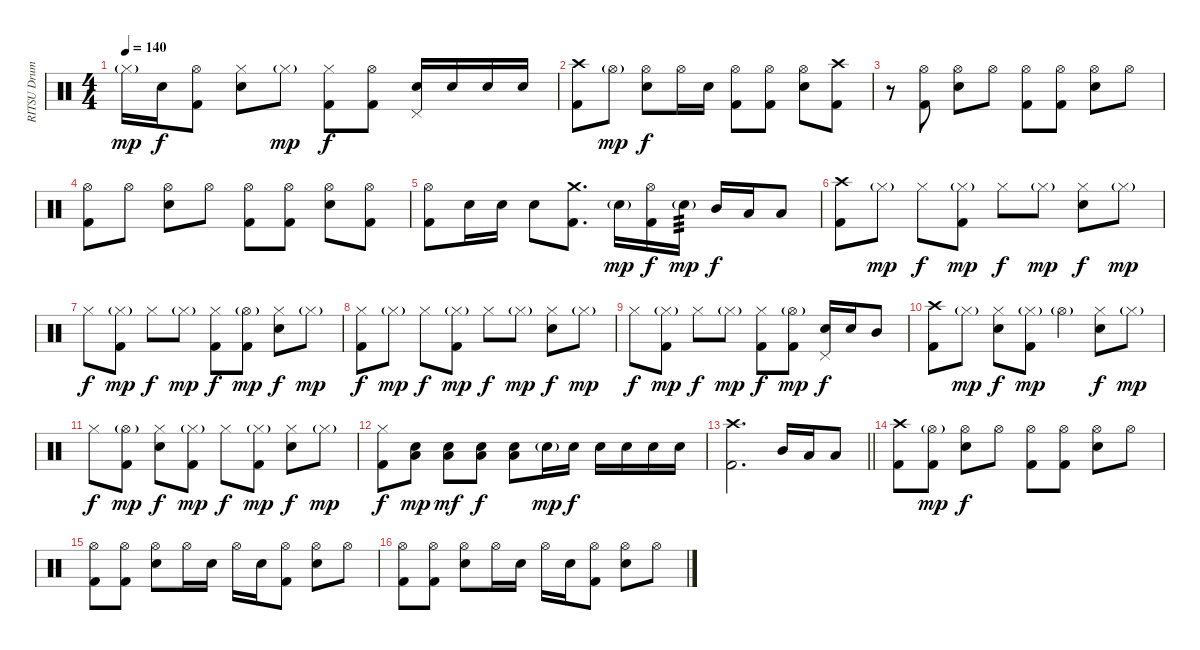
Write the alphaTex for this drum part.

\track ("RITSU Drums" "RITSU Drum") {instrument percussion}
\staff {score}
\articulation defaults
\ts (4 4)
\tempo 140
\clef neutral
\ks c "Hi-Hat (closed)"{g}.16{dy mp} "Electric Snare (hit)".16{dy f}
("Hi-Hat (open)" "Kick (hit) 2").8 ("Hi-Hat (closed)" "Electric Snare (hit)").8 "Hi-Hat (closed)"{g}.8{dy mp} ("Hi-Hat (closed)" "Kick (hit) 2").8{dy f} ("Hi-Hat (open)" "Kick (hit) 2").8 ("Pedal Hi-Hat (hit)" "Electric Snare (hit)").16 "Electric Snare (hit)".16 "Electric Snare (hit)".16 "Electric Snare (hit)".16 |
("Crash high (hit)" "Kick (hit) 2").8 "Hi-Hat (open)"{g}.8{dy mp} ("Hi-Hat (open)" "Electric Snare (hit)").8{dy f} "Hi-Hat (open)".16 "Electric Snare (hit)".16 ("Hi-Hat (open)" "Kick (hit) 2").8 ("Hi-Hat (open)" "Kick (hit) 2").8 ("Hi-Hat (open)" "Electric Snare (hit)").8 ("Crash high (hit)" "Kick (hit) 2").8 |
r.8 ("Hi-Hat (open)" "Kick (hit) 2").8 ("Hi-Hat (open)" "Electric Snare (hit)").8 "Hi-Hat (open)".8 ("Hi-Hat (open)" "Kick (hit) 2").8 ("Hi-Hat (open)" "Kick (hit) 2").8 ("Hi-Hat (open)" "Electric Snare (hit)").8 "Hi-Hat (open)".8 |
("Hi-Hat (open)" "Kick (hit) 2").8 "Hi-Hat (open)".8 ("Hi-Hat (open)" "Electric Snare (hit)").8 "Hi-Hat (open)".8 ("Hi-Hat (open)" "Kick (hit) 2").8 ("Hi-Hat (open)" "Kick (hit) 2").8 ("Hi-Hat (open)" "Electric Snare (hit)").8 ("Hi-Hat (open)" "Kick (hit) 2").8 |
("Hi-Hat (open)" "Kick (hit) 2").8 "Electric Snare (hit)".16 "Electric Snare (hit)".16 "Electric Snare (hit)".8 ("Crash medium (hit)" "Kick (hit) 2").8{d} "Electric Snare (hit)"{g}.16{dy mp} ("Hi-Hat (open)" "Kick (hit) 2").16{dy f} "Electric Snare (hit)"{g}.16{tp 3 dy mp} "Mid Tom (hit)".16{dy f} "Low Tom (hit)".16 "Low Tom (hit)".8 |
("Crash high (hit)" "Kick (hit) 2").8 "Hi-Hat (closed)"{g}.8{dy mp} "Hi-Hat (closed)".8{dy f} ("Hi-Hat (closed)"{g} "Kick (hit) 2").8{dy mp} "Hi-Hat (closed)".8{dy f} "Hi-Hat (closed)"{g}.8{dy mp} ("Hi-Hat (closed)" "Electric Snare (hit)").8{dy f} "Hi-Hat (closed)"{g}.8{dy mp} |
"Hi-Hat (closed)".8{dy f} ("Hi-Hat (closed)"{g} "Kick (hit) 2").8{dy mp} "Hi-Hat (closed)".8{dy f} "Hi-Hat (closed)"{g}.8{dy mp} ("Hi-Hat (closed)" "Kick (hit) 2").8{dy f} ("Hi-Hat (open)"{g} "Kick (hit) 2").8{dy mp} ("Hi-Hat (closed)" "Electric Snare (hit)").8{dy f} "Hi-Hat (closed)"{g}.8{dy mp} |
("Hi-Hat (closed)" "Kick (hit) 2").8{dy f} "Hi-Hat (closed)"{g}.8{dy mp} "Hi-Hat (closed)".8{dy f} ("Hi-Hat (closed)"{g} "Kick (hit) 2").8{dy mp} "Hi-Hat (closed)".8{dy f} "Hi-Hat (closed)"{g}.8{dy mp} ("Hi-Hat (closed)" "Electric Snare (hit)").8{dy f} "Hi-Hat (closed)"{g}.8{dy mp} |
"Hi-Hat (closed)".8{dy f} ("Hi-Hat (closed)"{g} "Kick (hit) 2").8{dy mp} "Hi-Hat (closed)".8{dy f} "Hi-Hat (closed)"{g}.8{dy mp} ("Hi-Hat (closed)" "Kick (hit) 2").8{dy f} ("Hi-Hat (open)"{g} "Kick (hit) 2").8{dy mp} ("Pedal Hi-Hat (hit)" "Electric Snare (hit)").16{dy f} "Electric Snare (hit)".16 "Mid Tom (hit)".8 |
("Crash high (hit)" "Kick (hit) 2").8 "Hi-Hat (closed)"{g}.8{dy mp} ("Hi-Hat (closed)" "Electric Snare (hit)").8{dy f} ("Hi-Hat (closed)"{g} "Kick (hit) 2").8{dy mp} "Hi-Hat (open)"{g}.4 ("Hi-Hat (closed)" "Electric Snare (hit)").8{dy f} "Hi-Hat (closed)"{g}.8{dy mp} |
"Hi-Hat (closed)".8{dy f} ("Hi-Hat (open)"{g} "Kick (hit) 2").8{dy mp} ("Hi-Hat (closed)" "Electric Snare (hit)").8{dy f} ("Hi-Hat (closed)"{g} "Kick (hit) 2").8{dy mp} "Hi-Hat (closed)".8{dy f} ("Hi-Hat (closed)"{g} "Kick (hit) 2").8{dy mp} ("Hi-Hat (closed)" "Electric Snare (hit)").8{dy f} "Hi-Hat (closed)"{g}.8{dy mp} |
("Hi-Hat (closed)" "Kick (hit) 2").8{dy f} ("Electric Snare (hit)" "Low Floor Tom (hit)").8{dy mp} ("Electric Snare (hit)" "Low Floor Tom (hit)").8{dy mf} ("Electric Snare (hit)" "Low Floor Tom (hit)").8{dy f} ("Electric Snare (hit)" "Low Floor Tom (hit)").8 "Electric Snare (hit)"{g}.16{dy mp} "Electric Snare (hit)".16{dy f} "Electric Snare (hit)".16 "Electric Snare (hit)".16 "Electric Snare (hit)".16 "Electric Snare (hit)".16 |
\barLineRight lightlight
("Crash high (hit)" "Kick (hit) 2").2{d} "Mid Tom (hit)".16 "Low Tom (hit)".16 "Low Floor Tom (hit)".8 |
("Crash high (hit)" "Kick (hit) 2").8 ("Hi-Hat (open)"{g} "Kick (hit) 2").8{dy mp} ("Hi-Hat (open)" "Electric Snare (hit)").8{dy f} "Hi-Hat (open)".8 ("Hi-Hat (open)" "Kick (hit) 2").8 ("Hi-Hat (open)" "Kick (hit) 2").8 ("Hi-Hat (open)" "Electric Snare (hit)").8 "Hi-Hat (open)".8 |
("Hi-Hat (open)" "Kick (hit) 2").8 ("Hi-Hat (open)" "Kick (hit) 2").8 ("Hi-Hat (open)" "Electric Snare (hit)").8 "Hi-Hat (open)".16 "Electric Snare (hit)".16 "Hi-Hat (open)".16 "Electric Snare (hit)".16 ("Hi-Hat (open)" "Kick (hit) 2").8 ("Hi-Hat (open)" "Electric Snare (hit)").8 "Hi-Hat (open)".8 |
("Hi-Hat (open)" "Kick (hit) 2").8 ("Hi-Hat (open)" "Kick (hit) 2").8 ("Hi-Hat (open)" "Electric Snare (hit)").8 "Hi-Hat (open)".16 "Electric Snare (hit)".16 "Hi-Hat (open)".16 "Electric Snare (hit)".16 ("Hi-Hat (open)" "Kick (hit) 2").8 ("Hi-Hat (open)" "Electric Snare (hit)").8 "Hi-Hat (open)".8
